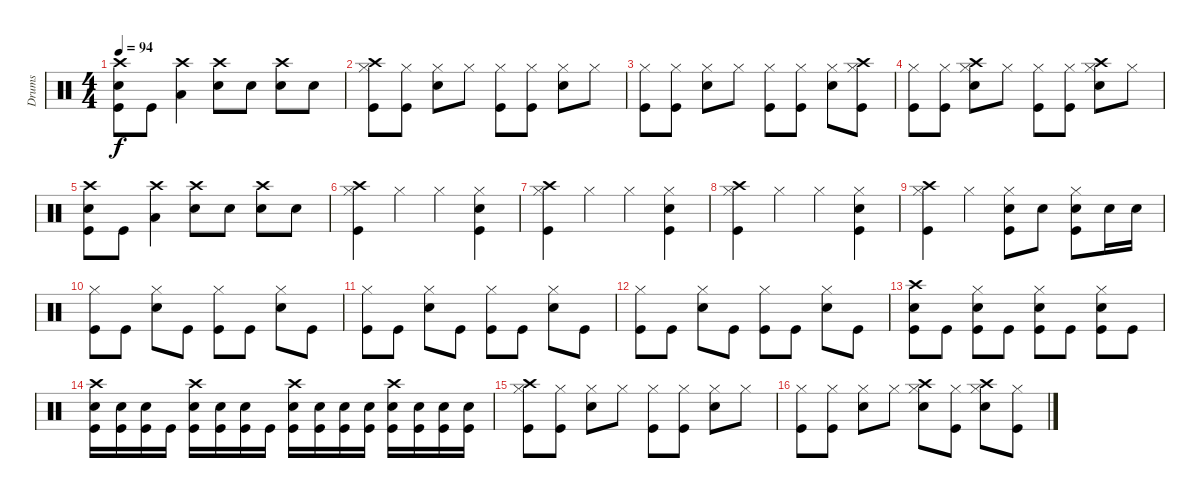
\track ("Drums" "Drums") {instrument percussion}
\staff {score}
\articulation defaults
\ts (4 4)
\tempo 94
\clef neutral
\ks c
("Crash high (hit)" "Snare (hit) 2" "Kick (hit)").8{dy f} "Kick (hit)".8 ("Crash high (hit)" "Low Tom (hit)").4 ("Crash high (hit)" "Snare (hit) 2").8 "Snare (hit) 2".8 ("Crash high (hit)" "Snare (hit) 2").8 "Snare (hit) 2".8 |
("Crash high (hit)" "Hi-Hat (closed)" "Kick (hit)").8 ("Hi-Hat (closed)" "Kick (hit)").8 ("Hi-Hat (closed)" "Snare (hit) 2").8 "Hi-Hat (closed)".8 ("Hi-Hat (closed)" "Kick (hit)").8 ("Hi-Hat (closed)" "Kick (hit)").8 ("Hi-Hat (closed)" "Snare (hit) 2").8 "Hi-Hat (closed)".8 |
("Hi-Hat (closed)" "Kick (hit)").8 ("Hi-Hat (closed)" "Kick (hit)").8 ("Hi-Hat (closed)" "Snare (hit) 2").8 "Hi-Hat (closed)".8 ("Hi-Hat (closed)" "Kick (hit)").8 ("Hi-Hat (closed)" "Kick (hit)").8 ("Hi-Hat (closed)" "Snare (hit) 2").8 ("Crash high (hit)" "Hi-Hat (closed)" "Kick (hit)").8 |
("Hi-Hat (closed)" "Kick (hit)").8 ("Hi-Hat (closed)" "Kick (hit)").8 ("Crash high (hit)" "Hi-Hat (closed)" "Snare (hit) 2").8 "Hi-Hat (closed)".8 ("Hi-Hat (closed)" "Kick (hit)").8 ("Hi-Hat (closed)" "Kick (hit)").8 ("Crash high (hit)" "Hi-Hat (closed)" "Snare (hit) 2").8 "Hi-Hat (closed)".8 |
("Crash high (hit)" "Snare (hit) 2" "Kick (hit)").8 "Kick (hit)".8 ("Crash high (hit)" "Low Tom (hit)").4 ("Crash high (hit)" "Snare (hit) 2").8 "Snare (hit) 2".8 ("Crash high (hit)" "Snare (hit) 2").8 "Snare (hit) 2".8 |
("Crash high (hit)" "Hi-Hat (closed)" "Kick (hit)").4 "Hi-Hat (closed)".4 "Hi-Hat (closed)".4 ("Hi-Hat (closed)" "Snare (hit) 2" "Kick (hit)").4 |
("Crash high (hit)" "Hi-Hat (closed)" "Kick (hit)").4 "Hi-Hat (closed)".4 "Hi-Hat (closed)".4 ("Hi-Hat (closed)" "Snare (hit) 2" "Kick (hit)").4 |
("Crash high (hit)" "Hi-Hat (closed)" "Kick (hit)").4 "Hi-Hat (closed)".4 "Hi-Hat (closed)".4 ("Hi-Hat (closed)" "Snare (hit) 2" "Kick (hit)").4 |
("Crash high (hit)" "Hi-Hat (closed)" "Kick (hit)").4 "Hi-Hat (closed)".4 ("Snare (hit) 2" "Hi-Hat (closed)" "Kick (hit)").8 "Snare (hit) 2".8 ("Snare (hit) 2" "Hi-Hat (closed)" "Kick (hit)").8 "Snare (hit) 2".16 "Snare (hit) 2".16 |
("Hi-Hat (closed)" "Kick (hit)").8 "Kick (hit)".8 ("Hi-Hat (closed)" "Snare (hit) 2").8 "Kick (hit)".8 ("Hi-Hat (closed)" "Kick (hit)").8 "Kick (hit)".8 ("Hi-Hat (closed)" "Snare (hit) 2").8 "Kick (hit)".8 |
("Hi-Hat (closed)" "Kick (hit)").8 "Kick (hit)".8 ("Hi-Hat (closed)" "Snare (hit) 2").8 "Kick (hit)".8 ("Hi-Hat (closed)" "Kick (hit)").8 "Kick (hit)".8 ("Hi-Hat (closed)" "Snare (hit) 2").8 "Kick (hit)".8 |
("Hi-Hat (closed)" "Kick (hit)").8 "Kick (hit)".8 ("Hi-Hat (closed)" "Snare (hit) 2").8 "Kick (hit)".8 ("Hi-Hat (closed)" "Kick (hit)").8 "Kick (hit)".8 ("Hi-Hat (closed)" "Snare (hit) 2").8 "Kick (hit)".8 |
("Crash high (hit)" "Snare (hit) 2" "Kick (hit)").8 "Kick (hit)".8 ("Hi-Hat (closed)" "Snare (hit) 2" "Kick (hit)").8 "Kick (hit)".8 ("Hi-Hat (closed)" "Snare (hit) 2" "Kick (hit)").8 "Kick (hit)".8 ("Hi-Hat (closed)" "Snare (hit) 2" "Kick (hit)").8 "Kick (hit)".8 |
("Crash high (hit)" "Snare (hit) 2" "Kick (hit)").16 ("Snare (hit) 2" "Kick (hit)").16 ("Snare (hit) 2" "Kick (hit)").16 "Kick (hit)".16 ("Crash high (hit)" "Snare (hit) 2" "Kick (hit)").16 ("Snare (hit) 2" "Kick (hit)").16 ("Snare (hit) 2" "Kick (hit)").16 "Kick (hit)".16 ("Crash high (hit)" "Snare (hit) 2" "Kick (hit)").16 ("Snare (hit) 2" "Kick (hit)").16 ("Snare (hit) 2" "Kick (hit)").16 ("Snare (hit) 2" "Kick (hit)").16 ("Crash high (hit)" "Snare (hit) 2" "Kick (hit)").16 ("Snare (hit) 2" "Kick (hit)").16 ("Snare (hit) 2" "Kick (hit)").16 ("Snare (hit) 2" "Kick (hit)").16 |
("Crash high (hit)" "Hi-Hat (closed)" "Kick (hit)").8 ("Hi-Hat (closed)" "Kick (hit)").8 ("Hi-Hat (closed)" "Snare (hit) 2").8 "Hi-Hat (closed)".8 ("Hi-Hat (closed)" "Kick (hit)").8 ("Hi-Hat (closed)" "Kick (hit)").8 ("Hi-Hat (closed)" "Snare (hit) 2").8 "Hi-Hat (closed)".8 |
("Hi-Hat (closed)" "Kick (hit)").8 ("Hi-Hat (closed)" "Kick (hit)").8 ("Hi-Hat (closed)" "Snare (hit) 2").8 "Hi-Hat (closed)".8 ("Crash high (hit)" "Hi-Hat (closed)" "Snare (hit) 2").8 ("Hi-Hat (closed)" "Kick (hit)").8 ("Crash high (hit)" "Hi-Hat (closed)" "Snare (hit) 2").8 ("Hi-Hat (closed)" "Kick (hit)").8
